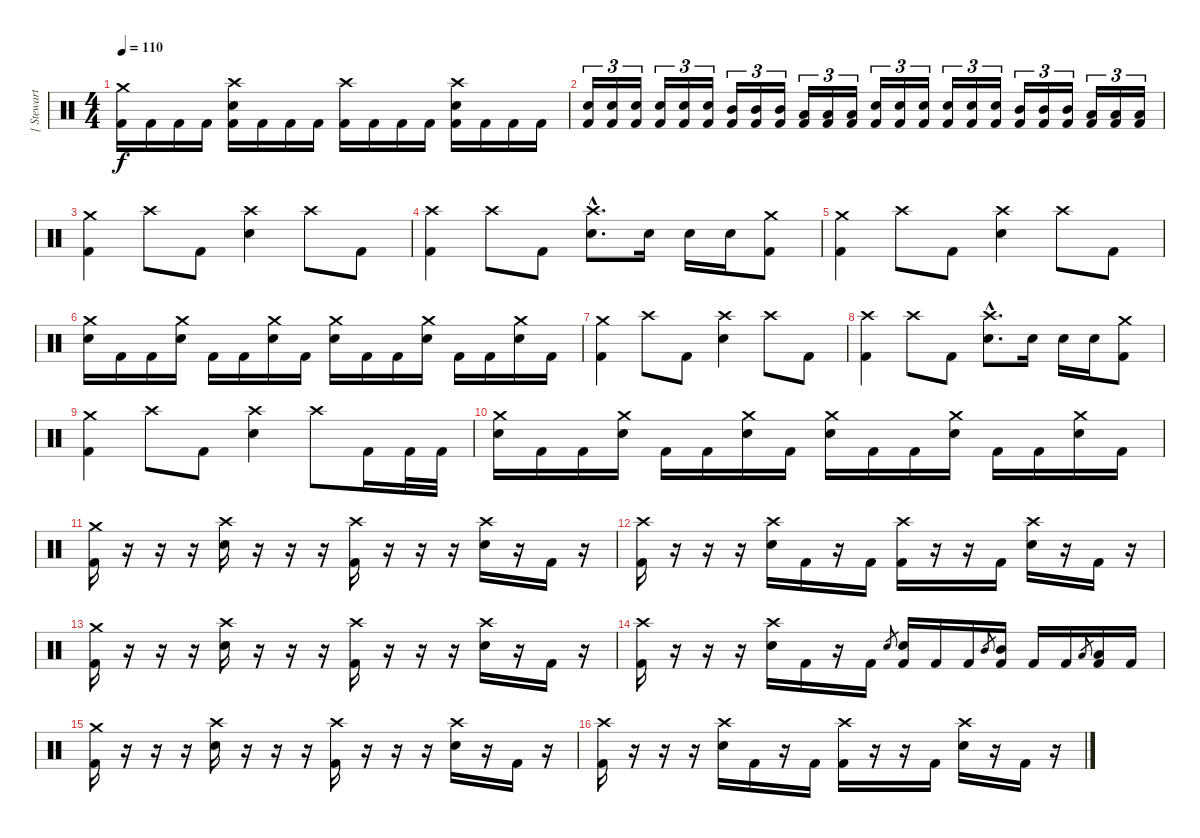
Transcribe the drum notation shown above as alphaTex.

\track ("[ Stewart ]" "[ Stewart ") {instrument percussion}
\staff {score}
\articulation defaults
\ts (4 4)
\tempo 110
\clef neutral
\ks c
("Kick (hit) 2" "Crash medium (hit)").16{dy f} "Kick (hit) 2".16 "Kick (hit) 2".16 "Kick (hit) 2".16 ("Kick (hit) 2" "Electric Snare (hit)" "Crash high (hit)").16 "Kick (hit) 2".16 "Kick (hit) 2".16 "Kick (hit) 2".16 ("Kick (hit) 2" "Crash high (hit)").16 "Kick (hit) 2".16 "Kick (hit) 2".16 "Kick (hit) 2".16 ("Kick (hit) 2" "Electric Snare (hit)" "Crash high (hit)").16 "Kick (hit) 2".16 "Kick (hit) 2".16 "Kick (hit) 2".16 |
("Electric Snare (hit)" "Kick (hit) 2").16{tu (3 2)} ("Electric Snare (hit)" "Kick (hit) 2").16{tu (3 2)} ("Electric Snare (hit)" "Kick (hit) 2").16{tu (3 2)} ("Electric Snare (hit)" "Kick (hit) 2").16{tu (3 2)} ("Electric Snare (hit)" "Kick (hit) 2").16{tu (3 2)} ("Electric Snare (hit)" "Kick (hit) 2").16{tu (3 2)} ("Mid Tom (hit)" "Kick (hit) 2").16{tu (3 2)} ("Mid Tom (hit)" "Kick (hit) 2").16{tu (3 2)} ("Mid Tom (hit)" "Kick (hit) 2").16{tu (3 2)} ("Low Tom (hit)" "Kick (hit) 2").16{tu (3 2)} ("Low Tom (hit)" "Kick (hit) 2").16{tu (3 2)} ("Low Tom (hit)" "Kick (hit) 2").16{tu (3 2)} ("Electric Snare (hit)" "Kick (hit) 2").16{tu (3 2)} ("Electric Snare (hit)" "Kick (hit) 2").16{tu (3 2)} ("Electric Snare (hit)" "Kick (hit) 2").16{tu (3 2)} ("Electric Snare (hit)" "Kick (hit) 2").16{tu (3 2)} ("Electric Snare (hit)" "Kick (hit) 2").16{tu (3 2)} ("Electric Snare (hit)" "Kick (hit) 2").16{tu (3 2)} ("Mid Tom (hit)" "Kick (hit) 2").16{tu (3 2)} ("Mid Tom (hit)" "Kick (hit) 2").16{tu (3 2)} ("Mid Tom (hit)" "Kick (hit) 2").16{tu (3 2)} ("Low Tom (hit)" "Kick (hit) 2").16{tu (3 2)} ("Low Tom (hit)" "Kick (hit) 2").16{tu (3 2)} ("Low Tom (hit)" "Kick (hit) 2").16{tu (3 2)} |
("Kick (hit) 2" "Crash medium (hit)").4 "Crash high (hit)".8 "Kick (hit) 2".8 ("Electric Snare (hit)" "Crash high (hit)").4 "Crash high (hit)".8 "Kick (hit) 2".8 |
("Kick (hit) 2" "Crash high (hit)").4 "Crash high (hit)".8 "Kick (hit) 2".8 ("Electric Snare (hit)"{hac} "Crash high (hit)"{hac}).8{d} "Electric Snare (hit)".16 "Electric Snare (hit)".16 "Electric Snare (hit)".16 ("Kick (hit) 2" "Crash medium (hit)").8 |
("Kick (hit) 2" "Crash medium (hit)").4 "Crash high (hit)".8 "Kick (hit) 2".8 ("Electric Snare (hit)" "Crash high (hit)").4 "Crash high (hit)".8 "Kick (hit) 2".8 |
("Electric Snare (hit)" "Crash medium (hit)").16 "Kick (hit) 2".16 "Kick (hit) 2".16 ("Electric Snare (hit)" "Crash medium (hit)").16 "Kick (hit) 2".16 "Kick (hit) 2".16 ("Electric Snare (hit)" "Crash medium (hit)").16 "Kick (hit) 2".16 ("Electric Snare (hit)" "Crash medium (hit)").16 "Kick (hit) 2".16 "Kick (hit) 2".16 ("Electric Snare (hit)" "Crash medium (hit)").16 "Kick (hit) 2".16 "Kick (hit) 2".16 ("Electric Snare (hit)" "Crash medium (hit)").16 "Kick (hit) 2".16 |
("Kick (hit) 2" "Crash medium (hit)").4 "Crash high (hit)".8 "Kick (hit) 2".8 ("Electric Snare (hit)" "Crash high (hit)").4 "Crash high (hit)".8 "Kick (hit) 2".8 |
("Kick (hit) 2" "Crash high (hit)").4 "Crash high (hit)".8 "Kick (hit) 2".8 ("Electric Snare (hit)"{hac} "Crash high (hit)"{hac}).8{d} "Electric Snare (hit)".16 "Electric Snare (hit)".16 "Electric Snare (hit)".16 ("Kick (hit) 2" "Crash medium (hit)").8 |
("Kick (hit) 2" "Crash medium (hit)").4 "Crash high (hit)".8 "Kick (hit) 2".8 ("Electric Snare (hit)" "Crash high (hit)").4 "Crash high (hit)".8 "Kick (hit) 2".16 "Kick (hit) 2".32 "Kick (hit) 2".32 |
("Electric Snare (hit)" "Crash medium (hit)").16 "Kick (hit) 2".16 "Kick (hit) 2".16 ("Electric Snare (hit)" "Crash medium (hit)").16 "Kick (hit) 2".16 "Kick (hit) 2".16 ("Electric Snare (hit)" "Crash medium (hit)").16 "Kick (hit) 2".16 ("Electric Snare (hit)" "Crash medium (hit)").16 "Kick (hit) 2".16 "Kick (hit) 2".16 ("Electric Snare (hit)" "Crash medium (hit)").16 "Kick (hit) 2".16 "Kick (hit) 2".16 ("Electric Snare (hit)" "Crash medium (hit)").16 "Kick (hit) 2".16 |
("Kick (hit) 2" "Crash medium (hit)").16 r.16 r.16 r.16 ("Electric Snare (hit)" "Crash high (hit)").16 r.16 r.16 r.16 ("Kick (hit) 2" "Crash high (hit)").16 r.16 r.16 r.16 ("Electric Snare (hit)" "Crash high (hit)").16 r.16 "Kick (hit) 2".16 r.16 |
("Kick (hit) 2" "Crash high (hit)").16 r.16 r.16 r.16 ("Electric Snare (hit)" "Crash high (hit)").16 "Kick (hit) 2".16 r.16 "Kick (hit) 2".16 ("Kick (hit) 2" "Crash high (hit)").16 r.16 r.16 "Kick (hit) 2".16 ("Electric Snare (hit)" "Crash high (hit)").16 r.16 "Kick (hit) 2".16 r.16 |
("Kick (hit) 2" "Crash medium (hit)").16 r.16 r.16 r.16 ("Electric Snare (hit)" "Crash high (hit)").16 r.16 r.16 r.16 ("Kick (hit) 2" "Crash high (hit)").16 r.16 r.16 r.16 ("Electric Snare (hit)" "Crash high (hit)").16 r.16 "Kick (hit) 2".16 r.16 |
("Kick (hit) 2" "Crash high (hit)").16 r.16 r.16 r.16 ("Electric Snare (hit)" "Crash high (hit)").16 "Kick (hit) 2".16 r.16 "Kick (hit) 2".16 "Electric Snare (hit)".8{gr} ("Kick (hit) 2" "Electric Snare (hit)").16 "Kick (hit) 2".16 "Kick (hit) 2".16 "Mid Tom (hit)".8{gr} ("Kick (hit) 2" "Mid Tom (hit)").16 "Kick (hit) 2".16 "Kick (hit) 2".16 "Low Tom (hit)".8{gr} ("Kick (hit) 2" "Low Tom (hit)").16 "Kick (hit) 2".16 |
("Kick (hit) 2" "Crash medium (hit)").16 r.16 r.16 r.16 ("Electric Snare (hit)" "Crash high (hit)").16 r.16 r.16 r.16 ("Kick (hit) 2" "Crash high (hit)").16 r.16 r.16 r.16 ("Electric Snare (hit)" "Crash high (hit)").16 r.16 "Kick (hit) 2".16 r.16 |
("Kick (hit) 2" "Crash high (hit)").16 r.16 r.16 r.16 ("Electric Snare (hit)" "Crash high (hit)").16 "Kick (hit) 2".16 r.16 "Kick (hit) 2".16 ("Kick (hit) 2" "Crash high (hit)").16 r.16 r.16 "Kick (hit) 2".16 ("Electric Snare (hit)" "Crash high (hit)").16 r.16 "Kick (hit) 2".16 r.16
